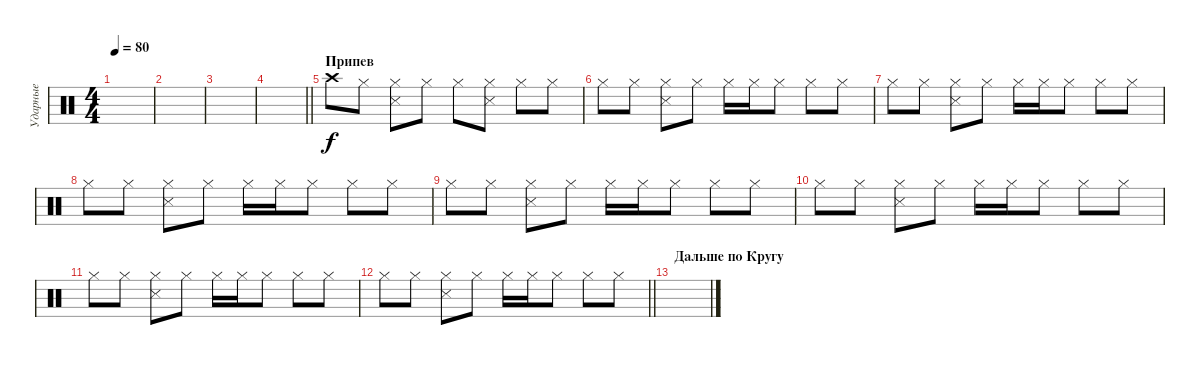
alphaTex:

\track ("Ударные" "Ударные") {instrument percussion}
\staff {score}
\articulation defaults
\ts (4 4)
\tempo 80
\clef neutral
\ks c
|
|
|
\barLineRight lightlight
|
\section ("" "Припев")
"Crash high (hit)".8 "Hi-Hat (closed)".8 ("Hi-Hat (closed)" "Metronome (hit)").8 "Hi-Hat (closed)".8 "Hi-Hat (closed)".8 ("Hi-Hat (closed)" "Metronome (hit)").8 "Hi-Hat (closed)".8 "Hi-Hat (closed)".8 |
"Hi-Hat (closed)".8 "Hi-Hat (closed)".8 ("Hi-Hat (closed)" "Metronome (hit)").8 "Hi-Hat (closed)".8 "Hi-Hat (closed)".16 "Hi-Hat (closed)".16 "Hi-Hat (closed)".8 "Hi-Hat (closed)".8 "Hi-Hat (closed)".8 |
"Hi-Hat (closed)".8 "Hi-Hat (closed)".8 ("Hi-Hat (closed)" "Metronome (hit)").8 "Hi-Hat (closed)".8 "Hi-Hat (closed)".16 "Hi-Hat (closed)".16 "Hi-Hat (closed)".8 "Hi-Hat (closed)".8 "Hi-Hat (closed)".8 |
"Hi-Hat (closed)".8 "Hi-Hat (closed)".8 ("Hi-Hat (closed)" "Metronome (hit)").8 "Hi-Hat (closed)".8 "Hi-Hat (closed)".16 "Hi-Hat (closed)".16 "Hi-Hat (closed)".8 "Hi-Hat (closed)".8 "Hi-Hat (closed)".8 |
"Hi-Hat (closed)".8 "Hi-Hat (closed)".8 ("Hi-Hat (closed)" "Metronome (hit)").8 "Hi-Hat (closed)".8 "Hi-Hat (closed)".16 "Hi-Hat (closed)".16 "Hi-Hat (closed)".8 "Hi-Hat (closed)".8 "Hi-Hat (closed)".8 |
"Hi-Hat (closed)".8 "Hi-Hat (closed)".8 ("Hi-Hat (closed)" "Metronome (hit)").8 "Hi-Hat (closed)".8 "Hi-Hat (closed)".16 "Hi-Hat (closed)".16 "Hi-Hat (closed)".8 "Hi-Hat (closed)".8 "Hi-Hat (closed)".8 |
"Hi-Hat (closed)".8 "Hi-Hat (closed)".8 ("Hi-Hat (closed)" "Metronome (hit)").8 "Hi-Hat (closed)".8 "Hi-Hat (closed)".16 "Hi-Hat (closed)".16 "Hi-Hat (closed)".8 "Hi-Hat (closed)".8 "Hi-Hat (closed)".8 |
\barLineRight lightlight "Hi-Hat (closed)".8 "Hi-Hat (closed)".8
("Hi-Hat (closed)" "Metronome (hit)").8 "Hi-Hat (closed)".8 "Hi-Hat (closed)".16 "Hi-Hat (closed)".16 "Hi-Hat (closed)".8 "Hi-Hat (closed)".8 "Hi-Hat (closed)".8 |
\section ("" "Дальше по Кругу")
